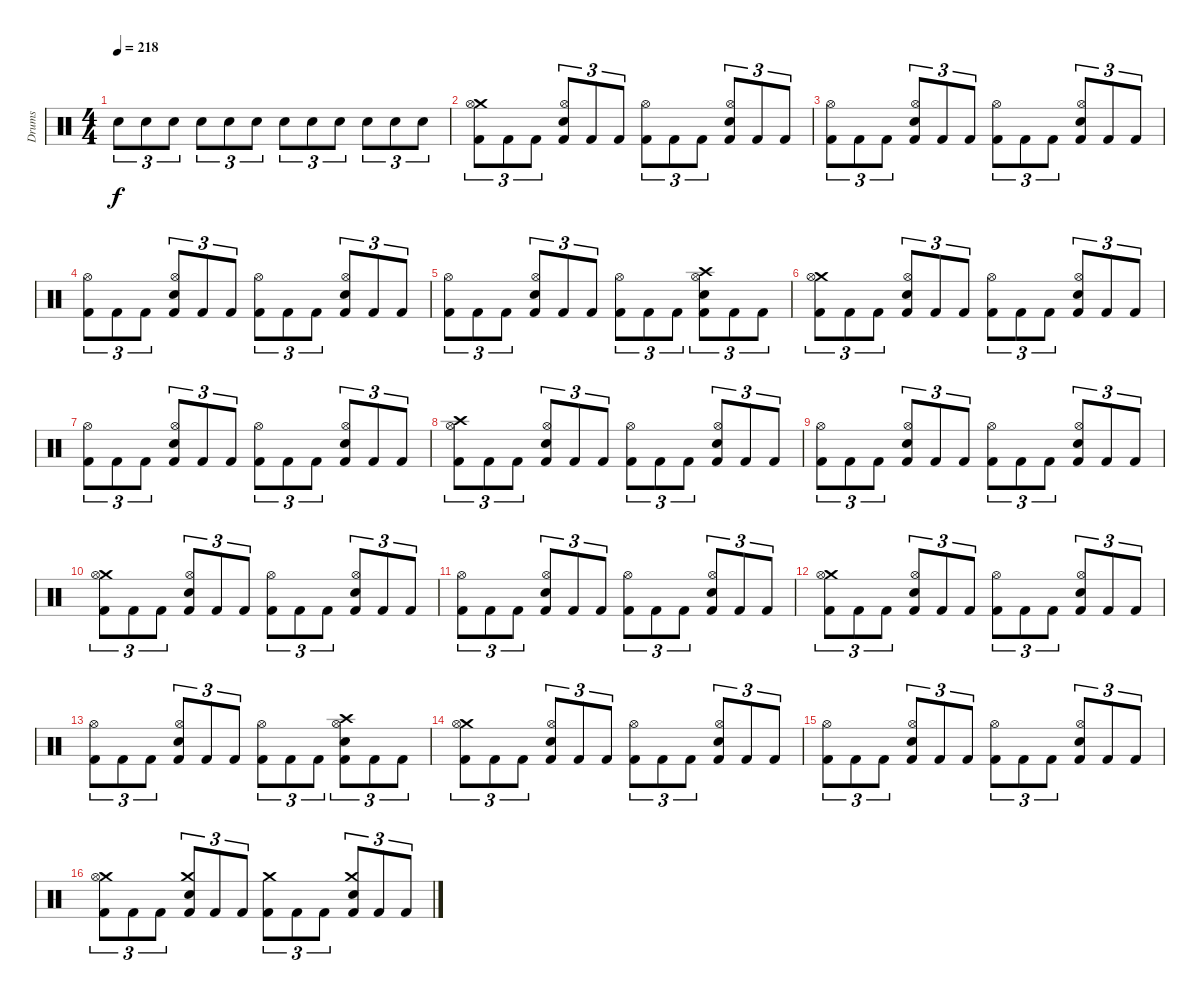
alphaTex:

\track ("Drums" "Drums") {instrument percussion}
\staff {score}
\articulation defaults
\ts (4 4)
\tempo 218
\clef neutral
\ks c "Electric Snare (hit)".8{tu (3 2) dy f} "Electric Snare (hit)".8{tu (3 2)} "Electric Snare (hit)".8{tu (3 2)} "Electric Snare (hit)".8{tu (3 2)} "Electric Snare (hit)".8{tu (3 2)} "Electric Snare (hit)".8{tu (3 2)} "Electric Snare (hit)".8{tu (3 2)} "Electric Snare (hit)".8{tu (3 2)} "Electric Snare (hit)".8{tu (3 2)} "Electric Snare (hit)".8{tu (3 2)} "Electric Snare (hit)".8{tu (3 2)} "Electric Snare (hit)".8{tu (3 2)}
|
("Crash medium (hit)" "Hi-Hat (open)" "Kick (hit) 2").8{tu (3 2)} "Kick (hit) 2".8{tu (3 2)} "Kick (hit) 2".8{tu (3 2)} ("Hi-Hat (open)" "Electric Snare (hit)" "Kick (hit) 2").8{tu (3 2)} "Kick (hit) 2".8{tu (3 2)} "Kick (hit) 2".8{tu (3 2)} ("Hi-Hat (open)" "Kick (hit) 2").8{tu (3 2)} "Kick (hit) 2".8{tu (3 2)} "Kick (hit) 2".8{tu (3 2)} ("Hi-Hat (open)" "Electric Snare (hit)" "Kick (hit) 2").8{tu (3 2)} "Kick (hit) 2".8{tu (3 2)} "Kick (hit) 2".8{tu (3 2)} |
("Hi-Hat (open)" "Kick (hit) 2").8{tu (3 2)} "Kick (hit) 2".8{tu (3 2)} "Kick (hit) 2".8{tu (3 2)} ("Hi-Hat (open)" "Electric Snare (hit)" "Kick (hit) 2").8{tu (3 2)} "Kick (hit) 2".8{tu (3 2)} "Kick (hit) 2".8{tu (3 2)} ("Hi-Hat (open)" "Kick (hit) 2").8{tu (3 2)} "Kick (hit) 2".8{tu (3 2)} "Kick (hit) 2".8{tu (3 2)} ("Hi-Hat (open)" "Electric Snare (hit)" "Kick (hit) 2").8{tu (3 2)} "Kick (hit) 2".8{tu (3 2)} "Kick (hit) 2".8{tu (3 2)} |
("Hi-Hat (open)" "Kick (hit) 2").8{tu (3 2)} "Kick (hit) 2".8{tu (3 2)} "Kick (hit) 2".8{tu (3 2)} ("Hi-Hat (open)" "Electric Snare (hit)" "Kick (hit) 2").8{tu (3 2)} "Kick (hit) 2".8{tu (3 2)} "Kick (hit) 2".8{tu (3 2)} ("Hi-Hat (open)" "Kick (hit) 2").8{tu (3 2)} "Kick (hit) 2".8{tu (3 2)} "Kick (hit) 2".8{tu (3 2)} ("Hi-Hat (open)" "Electric Snare (hit)" "Kick (hit) 2").8{tu (3 2)} "Kick (hit) 2".8{tu (3 2)} "Kick (hit) 2".8{tu (3 2)} |
("Hi-Hat (open)" "Kick (hit) 2").8{tu (3 2)} "Kick (hit) 2".8{tu (3 2)} "Kick (hit) 2".8{tu (3 2)} ("Hi-Hat (open)" "Electric Snare (hit)" "Kick (hit) 2").8{tu (3 2)} "Kick (hit) 2".8{tu (3 2)} "Kick (hit) 2".8{tu (3 2)} ("Hi-Hat (open)" "Kick (hit) 2").8{tu (3 2)} "Kick (hit) 2".8{tu (3 2)} "Kick (hit) 2".8{tu (3 2)} ("Crash high (hit)" "Hi-Hat (open)" "Electric Snare (hit)" "Kick (hit) 2").8{tu (3 2)} "Kick (hit) 2".8{tu (3 2)} "Kick (hit) 2".8{tu (3 2)} |
("Crash medium (hit)" "Hi-Hat (open)" "Kick (hit) 2").8{tu (3 2)} "Kick (hit) 2".8{tu (3 2)} "Kick (hit) 2".8{tu (3 2)} ("Hi-Hat (open)" "Electric Snare (hit)" "Kick (hit) 2").8{tu (3 2)} "Kick (hit) 2".8{tu (3 2)} "Kick (hit) 2".8{tu (3 2)} ("Hi-Hat (open)" "Kick (hit) 2").8{tu (3 2)} "Kick (hit) 2".8{tu (3 2)} "Kick (hit) 2".8{tu (3 2)} ("Hi-Hat (open)" "Electric Snare (hit)" "Kick (hit) 2").8{tu (3 2)} "Kick (hit) 2".8{tu (3 2)} "Kick (hit) 2".8{tu (3 2)} |
("Hi-Hat (open)" "Kick (hit) 2").8{tu (3 2)} "Kick (hit) 2".8{tu (3 2)} "Kick (hit) 2".8{tu (3 2)} ("Hi-Hat (open)" "Electric Snare (hit)" "Kick (hit) 2").8{tu (3 2)} "Kick (hit) 2".8{tu (3 2)} "Kick (hit) 2".8{tu (3 2)} ("Hi-Hat (open)" "Kick (hit) 2").8{tu (3 2)} "Kick (hit) 2".8{tu (3 2)} "Kick (hit) 2".8{tu (3 2)} ("Hi-Hat (open)" "Electric Snare (hit)" "Kick (hit) 2").8{tu (3 2)} "Kick (hit) 2".8{tu (3 2)} "Kick (hit) 2".8{tu (3 2)} |
("Crash high (hit)" "Hi-Hat (open)" "Kick (hit) 2").8{tu (3 2)} "Kick (hit) 2".8{tu (3 2)} "Kick (hit) 2".8{tu (3 2)} ("Hi-Hat (open)" "Electric Snare (hit)" "Kick (hit) 2").8{tu (3 2)} "Kick (hit) 2".8{tu (3 2)} "Kick (hit) 2".8{tu (3 2)} ("Hi-Hat (open)" "Kick (hit) 2").8{tu (3 2)} "Kick (hit) 2".8{tu (3 2)} "Kick (hit) 2".8{tu (3 2)} ("Hi-Hat (open)" "Electric Snare (hit)" "Kick (hit) 2").8{tu (3 2)} "Kick (hit) 2".8{tu (3 2)} "Kick (hit) 2".8{tu (3 2)} |
("Hi-Hat (open)" "Kick (hit) 2").8{tu (3 2)} "Kick (hit) 2".8{tu (3 2)} "Kick (hit) 2".8{tu (3 2)} ("Hi-Hat (open)" "Electric Snare (hit)" "Kick (hit) 2").8{tu (3 2)} "Kick (hit) 2".8{tu (3 2)} "Kick (hit) 2".8{tu (3 2)} ("Hi-Hat (open)" "Kick (hit) 2").8{tu (3 2)} "Kick (hit) 2".8{tu (3 2)} "Kick (hit) 2".8{tu (3 2)} ("Hi-Hat (open)" "Electric Snare (hit)" "Kick (hit) 2").8{tu (3 2)} "Kick (hit) 2".8{tu (3 2)} "Kick (hit) 2".8{tu (3 2)} |
("Crash medium (hit)" "Hi-Hat (open)" "Kick (hit) 2").8{tu (3 2)} "Kick (hit) 2".8{tu (3 2)} "Kick (hit) 2".8{tu (3 2)} ("Hi-Hat (open)" "Electric Snare (hit)" "Kick (hit) 2").8{tu (3 2)} "Kick (hit) 2".8{tu (3 2)} "Kick (hit) 2".8{tu (3 2)} ("Hi-Hat (open)" "Kick (hit) 2").8{tu (3 2)} "Kick (hit) 2".8{tu (3 2)} "Kick (hit) 2".8{tu (3 2)} ("Hi-Hat (open)" "Electric Snare (hit)" "Kick (hit) 2").8{tu (3 2)} "Kick (hit) 2".8{tu (3 2)} "Kick (hit) 2".8{tu (3 2)} |
("Hi-Hat (open)" "Kick (hit) 2").8{tu (3 2)} "Kick (hit) 2".8{tu (3 2)} "Kick (hit) 2".8{tu (3 2)} ("Hi-Hat (open)" "Electric Snare (hit)" "Kick (hit) 2").8{tu (3 2)} "Kick (hit) 2".8{tu (3 2)} "Kick (hit) 2".8{tu (3 2)} ("Hi-Hat (open)" "Kick (hit) 2").8{tu (3 2)} "Kick (hit) 2".8{tu (3 2)} "Kick (hit) 2".8{tu (3 2)} ("Hi-Hat (open)" "Electric Snare (hit)" "Kick (hit) 2").8{tu (3 2)} "Kick (hit) 2".8{tu (3 2)} "Kick (hit) 2".8{tu (3 2)} |
("Crash medium (hit)" "Hi-Hat (open)" "Kick (hit) 2").8{tu (3 2)} "Kick (hit) 2".8{tu (3 2)} "Kick (hit) 2".8{tu (3 2)} ("Hi-Hat (open)" "Electric Snare (hit)" "Kick (hit) 2").8{tu (3 2)} "Kick (hit) 2".8{tu (3 2)} "Kick (hit) 2".8{tu (3 2)} ("Hi-Hat (open)" "Kick (hit) 2").8{tu (3 2)} "Kick (hit) 2".8{tu (3 2)} "Kick (hit) 2".8{tu (3 2)} ("Hi-Hat (open)" "Electric Snare (hit)" "Kick (hit) 2").8{tu (3 2)} "Kick (hit) 2".8{tu (3 2)} "Kick (hit) 2".8{tu (3 2)} |
("Hi-Hat (open)" "Kick (hit) 2").8{tu (3 2)} "Kick (hit) 2".8{tu (3 2)} "Kick (hit) 2".8{tu (3 2)} ("Hi-Hat (open)" "Electric Snare (hit)" "Kick (hit) 2").8{tu (3 2)} "Kick (hit) 2".8{tu (3 2)} "Kick (hit) 2".8{tu (3 2)} ("Hi-Hat (open)" "Kick (hit) 2").8{tu (3 2)} "Kick (hit) 2".8{tu (3 2)} "Kick (hit) 2".8{tu (3 2)} ("Crash high (hit)" "Hi-Hat (open)" "Electric Snare (hit)" "Kick (hit) 2").8{tu (3 2)} "Kick (hit) 2".8{tu (3 2)} "Kick (hit) 2".8{tu (3 2)} |
("Crash medium (hit)" "Hi-Hat (open)" "Kick (hit) 2").8{tu (3 2)} "Kick (hit) 2".8{tu (3 2)} "Kick (hit) 2".8{tu (3 2)} ("Hi-Hat (open)" "Electric Snare (hit)" "Kick (hit) 2").8{tu (3 2)} "Kick (hit) 2".8{tu (3 2)} "Kick (hit) 2".8{tu (3 2)} ("Hi-Hat (open)" "Kick (hit) 2").8{tu (3 2)} "Kick (hit) 2".8{tu (3 2)} "Kick (hit) 2".8{tu (3 2)} ("Hi-Hat (open)" "Electric Snare (hit)" "Kick (hit) 2").8{tu (3 2)} "Kick (hit) 2".8{tu (3 2)} "Kick (hit) 2".8{tu (3 2)} |
("Hi-Hat (open)" "Kick (hit) 2").8{tu (3 2)} "Kick (hit) 2".8{tu (3 2)} "Kick (hit) 2".8{tu (3 2)} ("Hi-Hat (open)" "Electric Snare (hit)" "Kick (hit) 2").8{tu (3 2)} "Kick (hit) 2".8{tu (3 2)} "Kick (hit) 2".8{tu (3 2)} ("Hi-Hat (open)" "Kick (hit) 2").8{tu (3 2)} "Kick (hit) 2".8{tu (3 2)} "Kick (hit) 2".8{tu (3 2)} ("Hi-Hat (open)" "Electric Snare (hit)" "Kick (hit) 2").8{tu (3 2)} "Kick (hit) 2".8{tu (3 2)} "Kick (hit) 2".8{tu (3 2)} |
("Crash medium (hit)" "Hi-Hat (open)" "Kick (hit) 2").8{tu (3 2)} "Kick (hit) 2".8{tu (3 2)} "Kick (hit) 2".8{tu (3 2)} ("Crash medium (hit)" "Electric Snare (hit)" "Kick (hit) 2").8{tu (3 2)} "Kick (hit) 2".8{tu (3 2)} "Kick (hit) 2".8{tu (3 2)} ("Crash medium (hit)" "Kick (hit) 2").8{tu (3 2)} "Kick (hit) 2".8{tu (3 2)} "Kick (hit) 2".8{tu (3 2)} ("Crash medium (hit)" "Electric Snare (hit)" "Kick (hit) 2").8{tu (3 2)} "Kick (hit) 2".8{tu (3 2)} "Kick (hit) 2".8{tu (3 2)}
